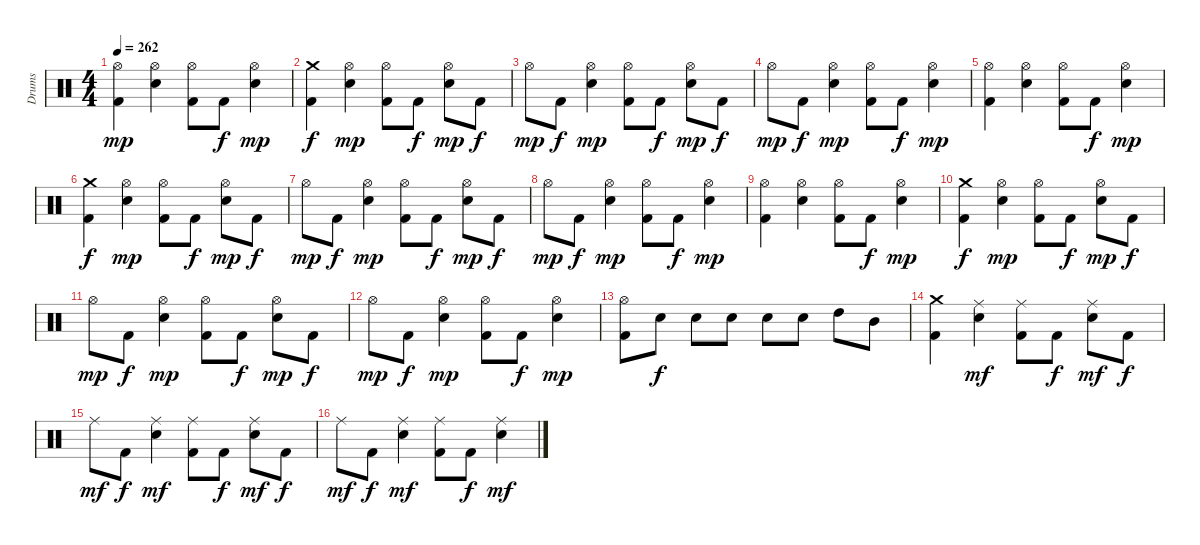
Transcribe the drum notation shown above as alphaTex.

\track ("Drums" "Drums") {instrument percussion}
\staff {score}
\articulation defaults
\ts (4 4)
\tempo 262
\clef neutral
\ks c
("Hi-Hat (open)" "Kick (hit) 2").4{dy mp} ("Hi-Hat (open)" "Snare (hit) 2").4 ("Hi-Hat (open)" "Kick (hit) 2").8 "Kick (hit) 2".8{dy f} ("Hi-Hat (open)" "Snare (hit) 2").4{dy mp} |
("Crash medium (hit)" "Kick (hit) 2").4{dy f} ("Hi-Hat (open)" "Snare (hit) 2").4{dy mp} ("Hi-Hat (open)" "Kick (hit) 2").8 "Kick (hit) 2".8{dy f} ("Hi-Hat (open)" "Snare (hit) 2").8{dy mp} "Kick (hit) 2".8{dy f} |
"Hi-Hat (open)".8{dy mp} "Kick (hit) 2".8{dy f} ("Hi-Hat (open)" "Snare (hit) 2").4{dy mp} ("Hi-Hat (open)" "Kick (hit) 2").8 "Kick (hit) 2".8{dy f} ("Hi-Hat (open)" "Snare (hit) 2").8{dy mp} "Kick (hit) 2".8{dy f} |
"Hi-Hat (open)".8{dy mp} "Kick (hit) 2".8{dy f} ("Hi-Hat (open)" "Snare (hit) 2").4{dy mp} ("Hi-Hat (open)" "Kick (hit) 2").8 "Kick (hit) 2".8{dy f} ("Hi-Hat (open)" "Snare (hit) 2").4{dy mp} |
("Hi-Hat (open)" "Kick (hit) 2").4 ("Hi-Hat (open)" "Snare (hit) 2").4 ("Hi-Hat (open)" "Kick (hit) 2").8 "Kick (hit) 2".8{dy f} ("Hi-Hat (open)" "Snare (hit) 2").4{dy mp} |
("Crash medium (hit)" "Kick (hit) 2").4{dy f} ("Hi-Hat (open)" "Snare (hit) 2").4{dy mp} ("Hi-Hat (open)" "Kick (hit) 2").8 "Kick (hit) 2".8{dy f} ("Hi-Hat (open)" "Snare (hit) 2").8{dy mp} "Kick (hit) 2".8{dy f} |
"Hi-Hat (open)".8{dy mp} "Kick (hit) 2".8{dy f} ("Hi-Hat (open)" "Snare (hit) 2").4{dy mp} ("Hi-Hat (open)" "Kick (hit) 2").8 "Kick (hit) 2".8{dy f} ("Hi-Hat (open)" "Snare (hit) 2").8{dy mp} "Kick (hit) 2".8{dy f} |
"Hi-Hat (open)".8{dy mp} "Kick (hit) 2".8{dy f} ("Hi-Hat (open)" "Snare (hit) 2").4{dy mp} ("Hi-Hat (open)" "Kick (hit) 2").8 "Kick (hit) 2".8{dy f} ("Hi-Hat (open)" "Snare (hit) 2").4{dy mp} |
("Hi-Hat (open)" "Kick (hit) 2").4 ("Hi-Hat (open)" "Snare (hit) 2").4 ("Hi-Hat (open)" "Kick (hit) 2").8 "Kick (hit) 2".8{dy f} ("Hi-Hat (open)" "Snare (hit) 2").4{dy mp} |
("Crash medium (hit)" "Kick (hit) 2").4{dy f} ("Hi-Hat (open)" "Snare (hit) 2").4{dy mp} ("Hi-Hat (open)" "Kick (hit) 2").8 "Kick (hit) 2".8{dy f} ("Hi-Hat (open)" "Snare (hit) 2").8{dy mp} "Kick (hit) 2".8{dy f} |
"Hi-Hat (open)".8{dy mp} "Kick (hit) 2".8{dy f} ("Hi-Hat (open)" "Snare (hit) 2").4{dy mp} ("Hi-Hat (open)" "Kick (hit) 2").8 "Kick (hit) 2".8{dy f} ("Hi-Hat (open)" "Snare (hit) 2").8{dy mp} "Kick (hit) 2".8{dy f} |
"Hi-Hat (open)".8{dy mp} "Kick (hit) 2".8{dy f} ("Hi-Hat (open)" "Snare (hit) 2").4{dy mp} ("Hi-Hat (open)" "Kick (hit) 2").8 "Kick (hit) 2".8{dy f} ("Hi-Hat (open)" "Snare (hit) 2").4{dy mp} |
("Hi-Hat (open)" "Kick (hit) 2").8 "Snare (hit) 2".8{dy f} "Snare (hit) 2".8 "Snare (hit) 2".8 "Snare (hit) 2".8 "Snare (hit) 2".8 "High Tom (hit)".8 "Mid Tom (hit)".8 |
("Crash medium (hit)" "Kick (hit) 2").4 ("Ride (middle)" "Snare (hit) 2").4{dy mf} ("Ride (middle)" "Kick (hit) 2").8 "Kick (hit) 2".8{dy f} ("Ride (middle)" "Snare (hit) 2").8{dy mf} "Kick (hit) 2".8{dy f} |
"Ride (middle)".8{dy mf} "Kick (hit) 2".8{dy f} ("Ride (middle)" "Snare (hit) 2").4{dy mf} ("Ride (middle)" "Kick (hit) 2").8 "Kick (hit) 2".8{dy f} ("Ride (middle)" "Snare (hit) 2").8{dy mf} "Kick (hit) 2".8{dy f} |
"Ride (middle)".8{dy mf} "Kick (hit) 2".8{dy f} ("Ride (middle)" "Snare (hit) 2").4{dy mf} ("Ride (middle)" "Kick (hit) 2").8 "Kick (hit) 2".8{dy f} ("Ride (middle)" "Snare (hit) 2").4{dy mf}
